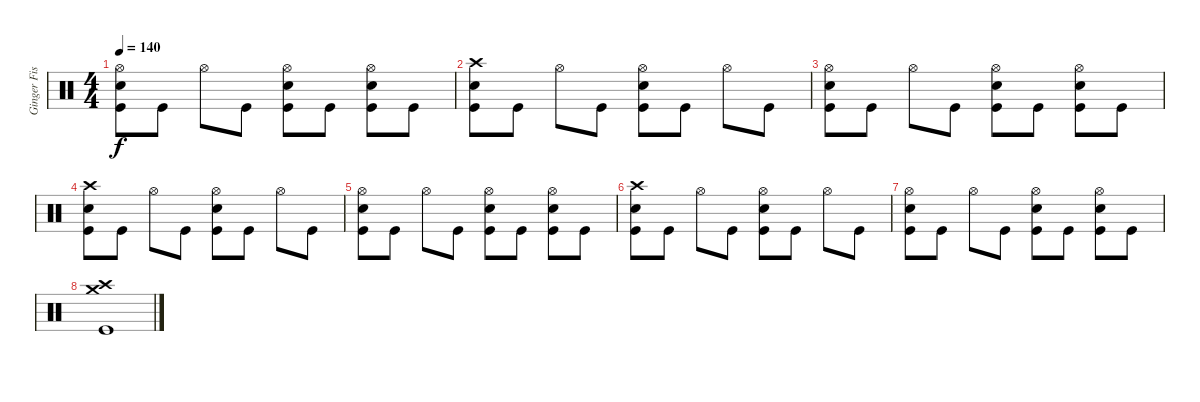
\track ("Ginger Fish" "Ginger Fis") {instrument percussion}
\staff {score}
\articulation defaults
\ts (4 4)
\tempo 140
\clef neutral
\ks c
("Hi-Hat (open)" "Electric Snare (hit)" "Kick (hit)").8{dy f} "Kick (hit)".8 "Hi-Hat (open)".8 "Kick (hit)".8 ("Hi-Hat (open)" "Electric Snare (hit)" "Kick (hit)").8 "Kick (hit)".8 ("Hi-Hat (open)" "Electric Snare (hit)" "Kick (hit)").8 "Kick (hit)".8 |
("Crash high (hit)" "Electric Snare (hit)" "Kick (hit)").8 "Kick (hit)".8 "Hi-Hat (open)".8 "Kick (hit)".8 ("Hi-Hat (open)" "Electric Snare (hit)" "Kick (hit)").8 "Kick (hit)".8 "Hi-Hat (open)".8 "Kick (hit)".8 |
("Hi-Hat (open)" "Electric Snare (hit)" "Kick (hit)").8 "Kick (hit)".8 "Hi-Hat (open)".8 "Kick (hit)".8 ("Hi-Hat (open)" "Electric Snare (hit)" "Kick (hit)").8 "Kick (hit)".8 ("Hi-Hat (open)" "Electric Snare (hit)" "Kick (hit)").8 "Kick (hit)".8 |
("Crash high (hit)" "Electric Snare (hit)" "Kick (hit)").8 "Kick (hit)".8 "Hi-Hat (open)".8 "Kick (hit)".8 ("Hi-Hat (open)" "Electric Snare (hit)" "Kick (hit)").8 "Kick (hit)".8 "Hi-Hat (open)".8 "Kick (hit)".8 |
("Hi-Hat (open)" "Electric Snare (hit)" "Kick (hit)").8 "Kick (hit)".8 "Hi-Hat (open)".8 "Kick (hit)".8 ("Hi-Hat (open)" "Electric Snare (hit)" "Kick (hit)").8 "Kick (hit)".8 ("Hi-Hat (open)" "Electric Snare (hit)" "Kick (hit)").8 "Kick (hit)".8 |
("Crash high (hit)" "Electric Snare (hit)" "Kick (hit)").8 "Kick (hit)".8 "Hi-Hat (open)".8 "Kick (hit)".8 ("Hi-Hat (open)" "Electric Snare (hit)" "Kick (hit)").8 "Kick (hit)".8 "Hi-Hat (open)".8 "Kick (hit)".8 |
("Hi-Hat (open)" "Electric Snare (hit)" "Kick (hit)").8 "Kick (hit)".8 "Hi-Hat (open)".8 "Kick (hit)".8 ("Hi-Hat (open)" "Electric Snare (hit)" "Kick (hit)").8 "Kick (hit)".8 ("Hi-Hat (open)" "Electric Snare (hit)" "Kick (hit)").8 "Kick (hit)".8 |
("Crash high (hit)" "Crash medium (hit)" "Kick (hit)").1
